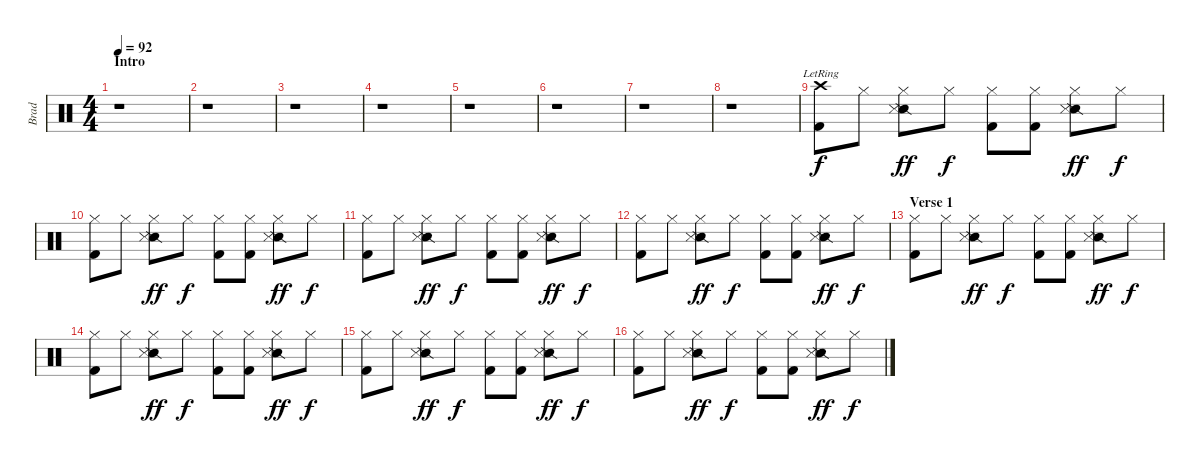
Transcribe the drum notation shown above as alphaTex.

\track ("Brad" "Brad") {instrument percussion}
\staff {score}
\articulation defaults
\ts (4 4)
\section ("" "Intro")
\tempo 92
\clef neutral
\ks c
r.1{dy f} |
r.1 |
r.1 |
r.1 |
r.1 |
r.1 |
r.1 |
r.1 |
("Crash high (hit)"{lr} "Kick (hit) 2").8 "Hi-Hat (closed)".8 ("Hi-Hat (closed)" "Snare (side stick) 2" "Snare (side stick) 3").8{dy ff} "Hi-Hat (closed)".8{dy f} ("Hi-Hat (closed)" "Kick (hit) 2").8 ("Hi-Hat (closed)" "Kick (hit) 2").8 ("Hi-Hat (closed)" "Snare (side stick) 2" "Snare (side stick) 3").8{dy ff} "Hi-Hat (closed)".8{dy f} |
("Hi-Hat (closed)" "Kick (hit) 2").8 "Hi-Hat (closed)".8 ("Hi-Hat (closed)" "Snare (side stick) 2" "Snare (side stick) 3").8{dy ff} "Hi-Hat (closed)".8{dy f} ("Hi-Hat (closed)" "Kick (hit) 2").8 ("Hi-Hat (closed)" "Kick (hit) 2").8 ("Hi-Hat (closed)" "Snare (side stick) 2" "Snare (side stick) 3").8{dy ff} "Hi-Hat (closed)".8{dy f} |
("Hi-Hat (closed)" "Kick (hit) 2").8 "Hi-Hat (closed)".8 ("Hi-Hat (closed)" "Snare (side stick) 2" "Snare (side stick) 3").8{dy ff} "Hi-Hat (closed)".8{dy f} ("Hi-Hat (closed)" "Kick (hit) 2").8 ("Hi-Hat (closed)" "Kick (hit) 2").8 ("Hi-Hat (closed)" "Snare (side stick) 2" "Snare (side stick) 3").8{dy ff} "Hi-Hat (closed)".8{dy f} |
("Hi-Hat (closed)" "Kick (hit) 2").8 "Hi-Hat (closed)".8 ("Hi-Hat (closed)" "Snare (side stick) 2" "Snare (side stick) 3").8{dy ff} "Hi-Hat (closed)".8{dy f} ("Hi-Hat (closed)" "Kick (hit) 2").8 ("Hi-Hat (closed)" "Kick (hit) 2").8 ("Hi-Hat (closed)" "Snare (side stick) 2" "Snare (side stick) 3").8{dy ff} "Hi-Hat (closed)".8{dy f} |
\section ("" "Verse 1")
("Hi-Hat (closed)" "Kick (hit) 2").8 "Hi-Hat (closed)".8 ("Hi-Hat (closed)" "Snare (side stick) 2" "Snare (side stick) 3").8{dy ff} "Hi-Hat (closed)".8{dy f} ("Hi-Hat (closed)" "Kick (hit) 2").8 ("Hi-Hat (closed)" "Kick (hit) 2").8 ("Hi-Hat (closed)" "Snare (side stick) 2" "Snare (side stick) 3").8{dy ff} "Hi-Hat (closed)".8{dy f} |
("Hi-Hat (closed)" "Kick (hit) 2").8 "Hi-Hat (closed)".8 ("Hi-Hat (closed)" "Snare (side stick) 2" "Snare (side stick) 3").8{dy ff} "Hi-Hat (closed)".8{dy f} ("Hi-Hat (closed)" "Kick (hit) 2").8 ("Hi-Hat (closed)" "Kick (hit) 2").8 ("Hi-Hat (closed)" "Snare (side stick) 2" "Snare (side stick) 3").8{dy ff} "Hi-Hat (closed)".8{dy f} |
("Hi-Hat (closed)" "Kick (hit) 2").8 "Hi-Hat (closed)".8 ("Hi-Hat (closed)" "Snare (side stick) 2" "Snare (side stick) 3").8{dy ff} "Hi-Hat (closed)".8{dy f} ("Hi-Hat (closed)" "Kick (hit) 2").8 ("Hi-Hat (closed)" "Kick (hit) 2").8 ("Hi-Hat (closed)" "Snare (side stick) 2" "Snare (side stick) 3").8{dy ff} "Hi-Hat (closed)".8{dy f} |
("Hi-Hat (closed)" "Kick (hit) 2").8 "Hi-Hat (closed)".8 ("Hi-Hat (closed)" "Snare (side stick) 2" "Snare (side stick) 3").8{dy ff} "Hi-Hat (closed)".8{dy f} ("Hi-Hat (closed)" "Kick (hit) 2").8 ("Hi-Hat (closed)" "Kick (hit) 2").8 ("Hi-Hat (closed)" "Snare (side stick) 2" "Snare (side stick) 3").8{dy ff} "Hi-Hat (closed)".8{dy f}
